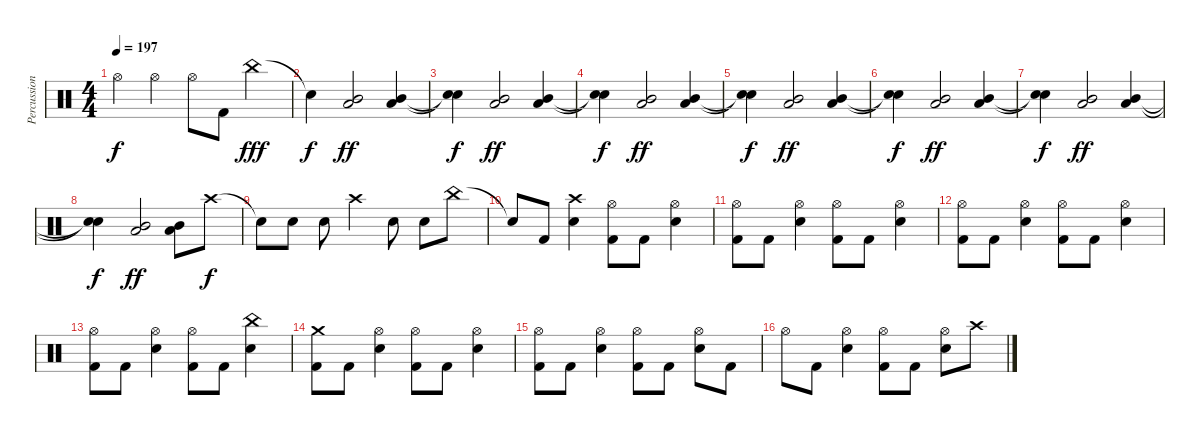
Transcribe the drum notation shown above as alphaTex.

\track ("Percussions" "Percussion") {instrument percussion}
\staff {score}
\articulation defaults
\ts (4 4)
\tempo 197
\clef neutral
\ks c "Hi-Hat (open)".4{dy f} "Hi-Hat (open)".4 "Hi-Hat (open)".8 "Kick (hit) 2".8 "China (hit)".4{dy fff}
|
"Snare (hit)"{t}.4{dy f} ("Mid Tom (hit)" "Low Tom (hit)").2{dy ff} ("Mid Tom (hit)" "Low Tom (hit)").4 |
("Snare (hit)"{t} "Snare (hit)"{t}).4{dy f} ("Mid Tom (hit)" "Low Tom (hit)").2{dy ff} ("Mid Tom (hit)" "Low Tom (hit)").4 |
("Snare (hit)"{t} "Snare (hit)"{t}).4{dy f} ("Mid Tom (hit)" "Low Tom (hit)").2{dy ff} ("Mid Tom (hit)" "Low Tom (hit)").4 |
("Snare (hit)"{t} "Snare (hit)"{t}).4{dy f} ("Mid Tom (hit)" "Low Tom (hit)").2{dy ff} ("Mid Tom (hit)" "Low Tom (hit)").4 |
("Snare (hit)"{t} "Snare (hit)"{t}).4{dy f} ("Mid Tom (hit)" "Low Tom (hit)").2{dy ff} ("Mid Tom (hit)" "Low Tom (hit)").4 |
("Snare (hit)"{t} "Snare (hit)"{t}).4{dy f} ("Mid Tom (hit)" "Low Tom (hit)").2{dy ff} ("Mid Tom (hit)" "Low Tom (hit)").4 |
("Snare (hit)"{t} "Snare (hit)"{t}).4{dy f} ("Mid Tom (hit)" "Low Tom (hit)").2{dy ff} ("Mid Tom (hit)" "Low Tom (hit)").8 "Crash high (hit)".8{dy f} |
"Snare (hit)"{t}.8 "Snare (hit) 2".8 "Snare (hit) 2".8 "Crash high (hit)".4 "Snare (hit) 2".8 "Snare (hit) 2".8 "China (hit)".8 |
"Snare (hit)"{t}.8 "Kick (hit) 2".8 ("Crash high (hit)" "Snare (hit) 2").4 ("Hi-Hat (open)" "Kick (hit) 2").8 "Kick (hit) 2".8 ("Hi-Hat (open)" "Snare (hit) 2").4 |
("Hi-Hat (open)" "Kick (hit) 2").8 "Kick (hit) 2".8 ("Hi-Hat (open)" "Snare (hit) 2").4 ("Hi-Hat (open)" "Kick (hit) 2").8 "Kick (hit) 2".8 ("Hi-Hat (open)" "Snare (hit) 2").4 |
("Hi-Hat (open)" "Kick (hit) 2").8 "Kick (hit) 2".8 ("Hi-Hat (open)" "Snare (hit) 2").4 ("Hi-Hat (open)" "Kick (hit) 2").8 "Kick (hit) 2".8 ("Hi-Hat (open)" "Snare (hit) 2").4 |
("Hi-Hat (open)" "Kick (hit) 2").8 "Kick (hit) 2".8 ("Hi-Hat (open)" "Snare (hit) 2").4 ("Hi-Hat (open)" "Kick (hit) 2").8 "Kick (hit) 2".8 ("China (hit)" "Snare (hit) 2").4 |
("Crash medium (hit)" "Kick (hit) 2").8 "Kick (hit) 2".8 ("Hi-Hat (open)" "Snare (hit) 2").4 ("Hi-Hat (open)" "Kick (hit) 2").8 "Kick (hit) 2".8 ("Hi-Hat (open)" "Snare (hit) 2").4 |
("Hi-Hat (open)" "Kick (hit) 2").8 "Kick (hit) 2".8 ("Hi-Hat (open)" "Snare (hit) 2").4 ("Hi-Hat (open)" "Kick (hit) 2").8 "Kick (hit) 2".8 ("Hi-Hat (open)" "Snare (hit) 2").8 "Kick (hit) 2".8 |
"Hi-Hat (open)".8 "Kick (hit) 2".8 ("Hi-Hat (open)" "Snare (hit) 2").4 ("Hi-Hat (open)" "Kick (hit) 2").8 "Kick (hit) 2".8 ("Hi-Hat (open)" "Snare (hit) 2").8 "Crash high (hit)".8
